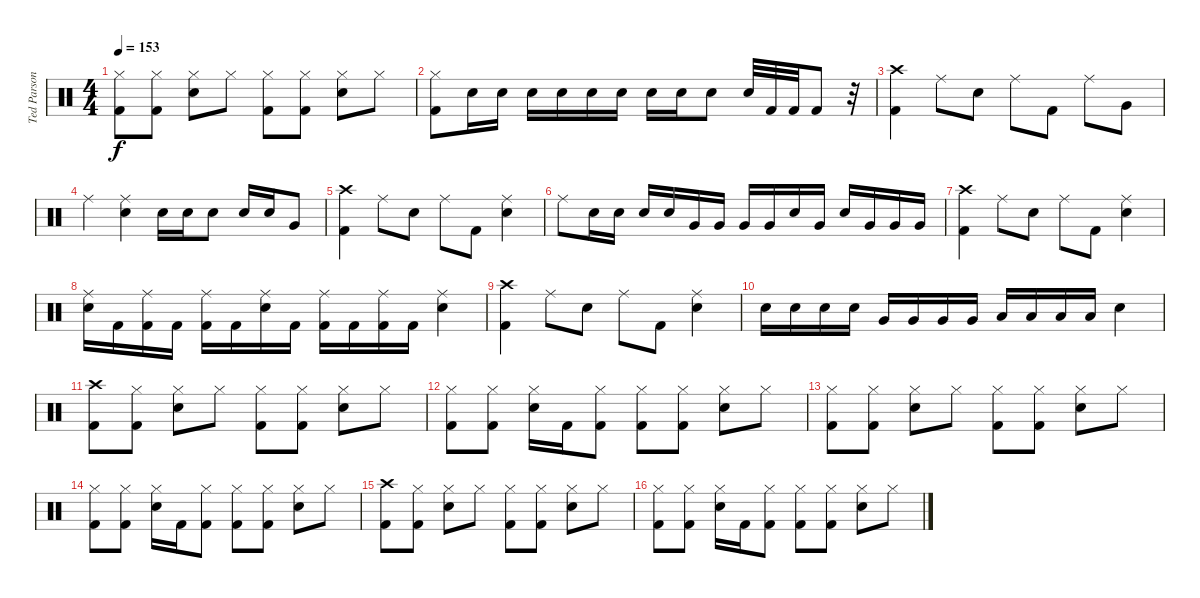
\track ("Ted Parsons" "Ted Parson") {instrument percussion}
\staff {score}
\articulation defaults
\ts (4 4)
\tempo 153
\clef neutral
\ks c
("Hi-Hat (closed)" "Kick (hit) 2").8{dy f} ("Hi-Hat (closed)" "Kick (hit) 2").8 ("Hi-Hat (closed)" "Electric Snare (hit)").8 "Hi-Hat (closed)".8 ("Hi-Hat (closed)" "Kick (hit) 2").8 ("Hi-Hat (closed)" "Kick (hit) 2").8 ("Hi-Hat (closed)" "Electric Snare (hit)").8 "Hi-Hat (closed)".8 |
("Hi-Hat (closed)" "Kick (hit) 2").8 "Electric Snare (hit)".16 "Electric Snare (hit)".16 "Electric Snare (hit)".16 "Electric Snare (hit)".16 "Electric Snare (hit)".16 "Electric Snare (hit)".16 "Electric Snare (hit)".16 "Electric Snare (hit)".16 "Electric Snare (hit)".8 "Electric Snare (hit)".32 "Kick (hit) 2".32 "Kick (hit) 2".32 "Kick (hit) 2".8 r.32 |
("Crash high (hit)" "Kick (hit) 2").4 "Ride (middle)".8 "Electric Snare (hit)".8 "Ride (middle)".8 "Kick (hit) 2".8 "Ride (middle)".8 "Very Low Tom (hit)".8 |
"Ride (middle)".4 ("Ride (middle)" "Electric Snare (hit)").4 "Electric Snare (hit)".16 "Electric Snare (hit)".16 "Electric Snare (hit)".8 "Electric Snare (hit)".16 "Electric Snare (hit)".16 "Very Low Tom (hit)".8 |
("Crash high (hit)" "Kick (hit) 2").4 "Ride (middle)".8 "Electric Snare (hit)".8 "Ride (middle)".8 "Kick (hit) 2".8 ("Ride (middle)" "Electric Snare (hit)").4 |
"Ride (middle)".8 "Electric Snare (hit)".16 "Electric Snare (hit)".16 "Electric Snare (hit)".16 "Electric Snare (hit)".16 "Very Low Tom (hit)".16 "Very Low Tom (hit)".16 "Very Low Tom (hit)".16 "Very Low Tom (hit)".16 "Electric Snare (hit)".16 "Very Low Tom (hit)".16 "Electric Snare (hit)".16 "Very Low Tom (hit)".16 "Very Low Tom (hit)".16 "Very Low Tom (hit)".16 |
("Crash high (hit)" "Kick (hit) 2").4 "Ride (middle)".8 "Electric Snare (hit)".8 "Ride (middle)".8 "Kick (hit) 2".8 ("Ride (middle)" "Electric Snare (hit)").4 |
("Ride (middle)" "Electric Snare (hit)").16 "Kick (hit) 2".16 ("Ride (middle)" "Kick (hit) 2").16 "Kick (hit) 2".16 ("Ride (middle)" "Kick (hit) 2").16 "Kick (hit) 2".16 ("Ride (middle)" "Electric Snare (hit)").16 "Kick (hit) 2".16 ("Ride (middle)" "Kick (hit) 2").16 "Kick (hit) 2".16 ("Ride (middle)" "Kick (hit) 2").16 "Kick (hit) 2".16 ("Ride (middle)" "Electric Snare (hit)").4 |
("Crash high (hit)" "Kick (hit) 2").4 "Ride (middle)".8 "Electric Snare (hit)".8 "Ride (middle)".8 "Kick (hit) 2".8 ("Ride (middle)" "Electric Snare (hit)").4 |
"Electric Snare (hit)".16 "Electric Snare (hit)".16 "Electric Snare (hit)".16 "Electric Snare (hit)".16 "Very Low Tom (hit)".16 "Very Low Tom (hit)".16 "Very Low Tom (hit)".16 "Very Low Tom (hit)".16 "Low Floor Tom (hit)".16 "Low Floor Tom (hit)".16 "Low Floor Tom (hit)".16 "Low Floor Tom (hit)".16 "Electric Snare (hit)".4 |
("Crash high (hit)" "Kick (hit) 2").8 ("Hi-Hat (closed)" "Kick (hit) 2").8 ("Hi-Hat (closed)" "Electric Snare (hit)").8 "Hi-Hat (closed)".8 ("Hi-Hat (closed)" "Kick (hit) 2").8 ("Hi-Hat (closed)" "Kick (hit) 2").8 ("Hi-Hat (closed)" "Electric Snare (hit)").8 "Hi-Hat (closed)".8 |
("Hi-Hat (closed)" "Kick (hit) 2").8 ("Hi-Hat (closed)" "Kick (hit) 2").8 ("Hi-Hat (closed)" "Electric Snare (hit)").16 "Kick (hit) 2".16 ("Hi-Hat (closed)" "Kick (hit) 2").8 ("Hi-Hat (closed)" "Kick (hit) 2").8 ("Hi-Hat (closed)" "Kick (hit) 2").8 ("Hi-Hat (closed)" "Electric Snare (hit)").8 "Hi-Hat (closed)".8 |
("Hi-Hat (closed)" "Kick (hit) 2").8 ("Hi-Hat (closed)" "Kick (hit) 2").8 ("Hi-Hat (closed)" "Electric Snare (hit)").8 "Hi-Hat (closed)".8 ("Hi-Hat (closed)" "Kick (hit) 2").8 ("Hi-Hat (closed)" "Kick (hit) 2").8 ("Hi-Hat (closed)" "Electric Snare (hit)").8 "Hi-Hat (closed)".8 |
("Hi-Hat (closed)" "Kick (hit) 2").8 ("Hi-Hat (closed)" "Kick (hit) 2").8 ("Hi-Hat (closed)" "Electric Snare (hit)").16 "Kick (hit) 2".16 ("Hi-Hat (closed)" "Kick (hit) 2").8 ("Hi-Hat (closed)" "Kick (hit) 2").8 ("Hi-Hat (closed)" "Kick (hit) 2").8 ("Hi-Hat (closed)" "Electric Snare (hit)").8 "Hi-Hat (closed)".8 |
("Crash high (hit)" "Kick (hit) 2").8 ("Hi-Hat (closed)" "Kick (hit) 2").8 ("Hi-Hat (closed)" "Electric Snare (hit)").8 "Hi-Hat (closed)".8 ("Hi-Hat (closed)" "Kick (hit) 2").8 ("Hi-Hat (closed)" "Kick (hit) 2").8 ("Hi-Hat (closed)" "Electric Snare (hit)").8 "Hi-Hat (closed)".8 |
("Hi-Hat (closed)" "Kick (hit) 2").8 ("Hi-Hat (closed)" "Kick (hit) 2").8 ("Hi-Hat (closed)" "Electric Snare (hit)").16 "Kick (hit) 2".16 ("Hi-Hat (closed)" "Kick (hit) 2").8 ("Hi-Hat (closed)" "Kick (hit) 2").8 ("Hi-Hat (closed)" "Kick (hit) 2").8 ("Hi-Hat (closed)" "Electric Snare (hit)").8 "Hi-Hat (closed)".8
